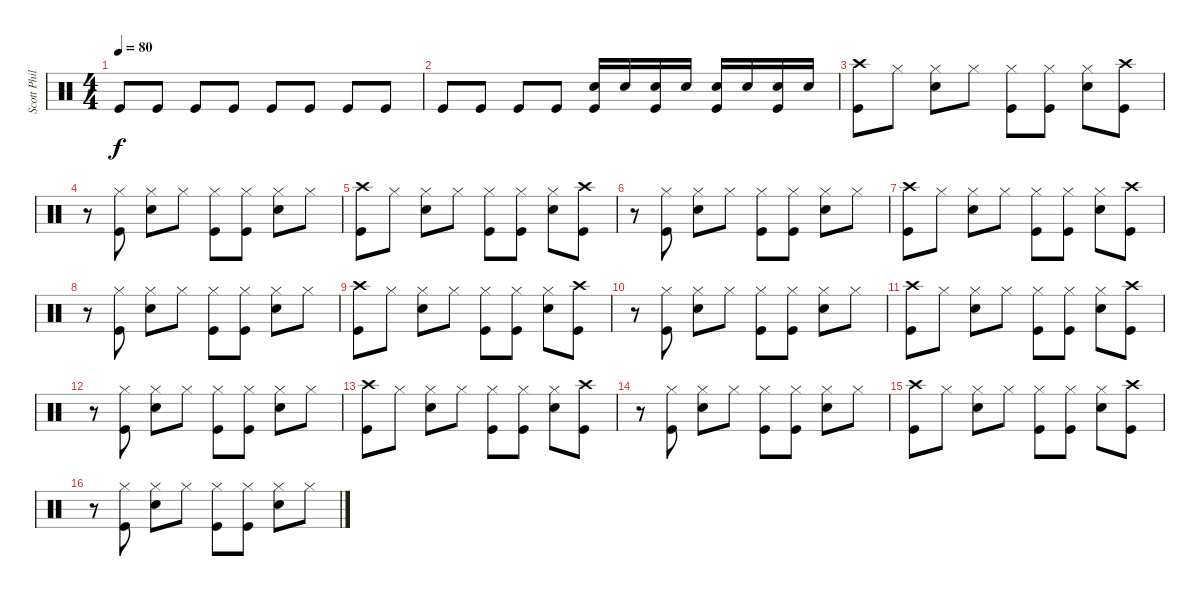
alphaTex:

\track ("Scott Phillips" "Scott Phil") {instrument percussion}
\staff {score}
\articulation defaults
\ts (4 4)
\tempo 80
\clef neutral
\ks c "Kick (hit)".8{dy f} "Kick (hit)".8 "Kick (hit)".8 "Kick (hit)".8 "Kick (hit)".8 "Kick (hit)".8 "Kick (hit)".8 "Kick (hit)".8
|
"Kick (hit)".8 "Kick (hit)".8 "Kick (hit)".8 "Kick (hit)".8 ("Snare (hit) 2" "Kick (hit)").16 "Snare (hit) 2".16 ("Snare (hit) 2" "Kick (hit)").16 "Snare (hit) 2".16 ("Snare (hit) 2" "Kick (hit)").16 "Snare (hit) 2".16 ("Snare (hit) 2" "Kick (hit)").16 "Snare (hit) 2".16 |
("Crash high (hit)" "Kick (hit)").8 "Hi-Hat (closed)".8 ("Hi-Hat (closed)" "Snare (hit) 2").8 "Hi-Hat (closed)".8 ("Hi-Hat (closed)" "Kick (hit)").8 ("Hi-Hat (closed)" "Kick (hit)").8 ("Hi-Hat (closed)" "Snare (hit) 2").8 ("Crash high (hit)" "Kick (hit)").8 |
r.8 ("Hi-Hat (closed)" "Kick (hit)").8 ("Hi-Hat (closed)" "Snare (hit) 2").8 "Hi-Hat (closed)".8 ("Hi-Hat (closed)" "Kick (hit)").8 ("Hi-Hat (closed)" "Kick (hit)").8 ("Hi-Hat (closed)" "Snare (hit) 2").8 "Hi-Hat (closed)".8 |
("Crash high (hit)" "Kick (hit)").8 "Hi-Hat (closed)".8 ("Hi-Hat (closed)" "Snare (hit) 2").8 "Hi-Hat (closed)".8 ("Hi-Hat (closed)" "Kick (hit)").8 ("Hi-Hat (closed)" "Kick (hit)").8 ("Hi-Hat (closed)" "Snare (hit) 2").8 ("Crash high (hit)" "Kick (hit)").8 |
r.8 ("Hi-Hat (closed)" "Kick (hit)").8 ("Hi-Hat (closed)" "Snare (hit) 2").8 "Hi-Hat (closed)".8 ("Hi-Hat (closed)" "Kick (hit)").8 ("Hi-Hat (closed)" "Kick (hit)").8 ("Hi-Hat (closed)" "Snare (hit) 2").8 "Hi-Hat (closed)".8 |
("Crash high (hit)" "Kick (hit)").8 "Hi-Hat (closed)".8 ("Hi-Hat (closed)" "Snare (hit) 2").8 "Hi-Hat (closed)".8 ("Hi-Hat (closed)" "Kick (hit)").8 ("Hi-Hat (closed)" "Kick (hit)").8 ("Hi-Hat (closed)" "Snare (hit) 2").8 ("Crash high (hit)" "Kick (hit)").8 |
r.8 ("Hi-Hat (closed)" "Kick (hit)").8 ("Hi-Hat (closed)" "Snare (hit) 2").8 "Hi-Hat (closed)".8 ("Hi-Hat (closed)" "Kick (hit)").8 ("Hi-Hat (closed)" "Kick (hit)").8 ("Hi-Hat (closed)" "Snare (hit) 2").8 "Hi-Hat (closed)".8 |
("Crash high (hit)" "Kick (hit)").8 "Hi-Hat (closed)".8 ("Hi-Hat (closed)" "Snare (hit) 2").8 "Hi-Hat (closed)".8 ("Hi-Hat (closed)" "Kick (hit)").8 ("Hi-Hat (closed)" "Kick (hit)").8 ("Hi-Hat (closed)" "Snare (hit) 2").8 ("Crash high (hit)" "Kick (hit)").8 |
r.8 ("Hi-Hat (closed)" "Kick (hit)").8 ("Hi-Hat (closed)" "Snare (hit) 2").8 "Hi-Hat (closed)".8 ("Hi-Hat (closed)" "Kick (hit)").8 ("Hi-Hat (closed)" "Kick (hit)").8 ("Hi-Hat (closed)" "Snare (hit) 2").8 "Hi-Hat (closed)".8 |
("Crash high (hit)" "Kick (hit)").8 "Hi-Hat (closed)".8 ("Hi-Hat (closed)" "Snare (hit) 2").8 "Hi-Hat (closed)".8 ("Hi-Hat (closed)" "Kick (hit)").8 ("Hi-Hat (closed)" "Kick (hit)").8 ("Hi-Hat (closed)" "Snare (hit) 2").8 ("Crash high (hit)" "Kick (hit)").8 |
r.8 ("Hi-Hat (closed)" "Kick (hit)").8 ("Hi-Hat (closed)" "Snare (hit) 2").8 "Hi-Hat (closed)".8 ("Hi-Hat (closed)" "Kick (hit)").8 ("Hi-Hat (closed)" "Kick (hit)").8 ("Hi-Hat (closed)" "Snare (hit) 2").8 "Hi-Hat (closed)".8 |
("Crash high (hit)" "Kick (hit)").8 "Hi-Hat (closed)".8 ("Hi-Hat (closed)" "Snare (hit) 2").8 "Hi-Hat (closed)".8 ("Hi-Hat (closed)" "Kick (hit)").8 ("Hi-Hat (closed)" "Kick (hit)").8 ("Hi-Hat (closed)" "Snare (hit) 2").8 ("Crash high (hit)" "Kick (hit)").8 |
r.8 ("Hi-Hat (closed)" "Kick (hit)").8 ("Hi-Hat (closed)" "Snare (hit) 2").8 "Hi-Hat (closed)".8 ("Hi-Hat (closed)" "Kick (hit)").8 ("Hi-Hat (closed)" "Kick (hit)").8 ("Hi-Hat (closed)" "Snare (hit) 2").8 "Hi-Hat (closed)".8 |
("Crash high (hit)" "Kick (hit)").8 "Hi-Hat (closed)".8 ("Hi-Hat (closed)" "Snare (hit) 2").8 "Hi-Hat (closed)".8 ("Hi-Hat (closed)" "Kick (hit)").8 ("Hi-Hat (closed)" "Kick (hit)").8 ("Hi-Hat (closed)" "Snare (hit) 2").8 ("Crash high (hit)" "Kick (hit)").8 |
r.8 ("Hi-Hat (closed)" "Kick (hit)").8 ("Hi-Hat (closed)" "Snare (hit) 2").8 "Hi-Hat (closed)".8 ("Hi-Hat (closed)" "Kick (hit)").8 ("Hi-Hat (closed)" "Kick (hit)").8 ("Hi-Hat (closed)" "Snare (hit) 2").8 "Hi-Hat (closed)".8
